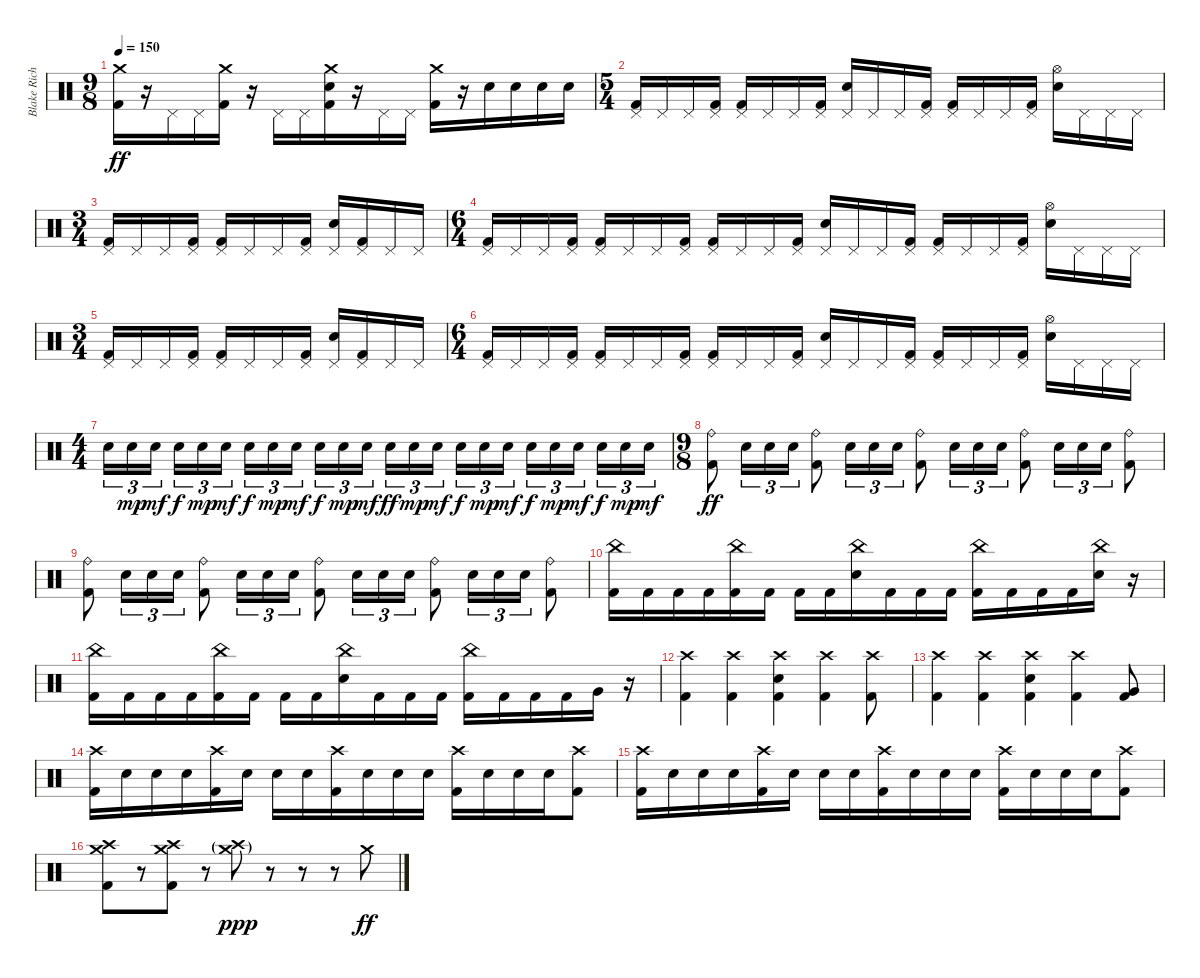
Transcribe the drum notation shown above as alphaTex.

\track ("Blake Richardson" "Blake Rich") {instrument percussion}
\staff {score}
\articulation defaults
\ts (9 8)
\tempo 150
\clef neutral
\ks c
("Crash medium (hit)" "Kick (hit) 2").16{dy ff} r.16 "Pedal Hi-Hat (hit)".16 "Pedal Hi-Hat (hit)".16 ("Crash medium (hit)" "Kick (hit) 2").16 r.16 "Pedal Hi-Hat (hit)".16 "Pedal Hi-Hat (hit)".16 ("Crash medium (hit)" "Electric Snare (hit)" "Kick (hit) 2").16 r.16 "Pedal Hi-Hat (hit)".16 "Pedal Hi-Hat (hit)".16 ("Crash medium (hit)" "Kick (hit) 2").16 r.16 "Electric Snare (hit)".16 "Electric Snare (hit)".16 "Electric Snare (hit)".16 "Electric Snare (hit)".16 |
\ts (5 4)
("Pedal Hi-Hat (hit)" "Kick (hit) 2").16 "Pedal Hi-Hat (hit)".16 "Pedal Hi-Hat (hit)".16 ("Pedal Hi-Hat (hit)" "Kick (hit) 2").16 ("Pedal Hi-Hat (hit)" "Kick (hit) 2").16 "Pedal Hi-Hat (hit)".16 "Pedal Hi-Hat (hit)".16 ("Pedal Hi-Hat (hit)" "Kick (hit) 2").16 ("Pedal Hi-Hat (hit)" "Electric Snare (hit)").16 "Pedal Hi-Hat (hit)".16 "Pedal Hi-Hat (hit)".16 ("Pedal Hi-Hat (hit)" "Kick (hit) 2").16 ("Pedal Hi-Hat (hit)" "Kick (hit) 2").16 "Pedal Hi-Hat (hit)".16 "Pedal Hi-Hat (hit)".16 ("Pedal Hi-Hat (hit)" "Kick (hit) 2").16 ("Hi-Hat (open)" "Electric Snare (hit)").16 "Pedal Hi-Hat (hit)".16 "Pedal Hi-Hat (hit)".16 "Pedal Hi-Hat (hit)".16 |
\ts (3 4)
("Pedal Hi-Hat (hit)" "Kick (hit) 2").16 "Pedal Hi-Hat (hit)".16 "Pedal Hi-Hat (hit)".16 ("Pedal Hi-Hat (hit)" "Kick (hit) 2").16 ("Pedal Hi-Hat (hit)" "Kick (hit) 2").16 "Pedal Hi-Hat (hit)".16 "Pedal Hi-Hat (hit)".16 ("Pedal Hi-Hat (hit)" "Kick (hit) 2").16 ("Pedal Hi-Hat (hit)" "Electric Snare (hit)").16 ("Pedal Hi-Hat (hit)" "Kick (hit) 2").16 "Pedal Hi-Hat (hit)".16 "Pedal Hi-Hat (hit)".16 |
\ts (6 4)
("Pedal Hi-Hat (hit)" "Kick (hit) 2").16 "Pedal Hi-Hat (hit)".16 "Pedal Hi-Hat (hit)".16 ("Pedal Hi-Hat (hit)" "Kick (hit) 2").16 ("Pedal Hi-Hat (hit)" "Kick (hit) 2").16 "Pedal Hi-Hat (hit)".16 "Pedal Hi-Hat (hit)".16 ("Pedal Hi-Hat (hit)" "Kick (hit) 2").16 ("Pedal Hi-Hat (hit)" "Kick (hit) 2").16 "Pedal Hi-Hat (hit)".16 "Pedal Hi-Hat (hit)".16 ("Pedal Hi-Hat (hit)" "Kick (hit) 2").16 ("Pedal Hi-Hat (hit)" "Electric Snare (hit)").16 "Pedal Hi-Hat (hit)".16 "Pedal Hi-Hat (hit)".16 ("Pedal Hi-Hat (hit)" "Kick (hit) 2").16 ("Pedal Hi-Hat (hit)" "Kick (hit) 2").16 "Pedal Hi-Hat (hit)".16 "Pedal Hi-Hat (hit)".16 ("Pedal Hi-Hat (hit)" "Kick (hit) 2").16 ("Hi-Hat (open)" "Electric Snare (hit)").16 "Pedal Hi-Hat (hit)".16 "Pedal Hi-Hat (hit)".16 "Pedal Hi-Hat (hit)".16 |
\ts (3 4)
("Pedal Hi-Hat (hit)" "Kick (hit) 2").16 "Pedal Hi-Hat (hit)".16 "Pedal Hi-Hat (hit)".16 ("Pedal Hi-Hat (hit)" "Kick (hit) 2").16 ("Pedal Hi-Hat (hit)" "Kick (hit) 2").16 "Pedal Hi-Hat (hit)".16 "Pedal Hi-Hat (hit)".16 ("Pedal Hi-Hat (hit)" "Kick (hit) 2").16 ("Pedal Hi-Hat (hit)" "Electric Snare (hit)").16 ("Pedal Hi-Hat (hit)" "Kick (hit) 2").16 "Pedal Hi-Hat (hit)".16 "Pedal Hi-Hat (hit)".16 |
\ts (6 4)
("Pedal Hi-Hat (hit)" "Kick (hit) 2").16 "Pedal Hi-Hat (hit)".16 "Pedal Hi-Hat (hit)".16 ("Pedal Hi-Hat (hit)" "Kick (hit) 2").16 ("Pedal Hi-Hat (hit)" "Kick (hit) 2").16 "Pedal Hi-Hat (hit)".16 "Pedal Hi-Hat (hit)".16 ("Pedal Hi-Hat (hit)" "Kick (hit) 2").16 ("Pedal Hi-Hat (hit)" "Kick (hit) 2").16 "Pedal Hi-Hat (hit)".16 "Pedal Hi-Hat (hit)".16 ("Pedal Hi-Hat (hit)" "Kick (hit) 2").16 ("Pedal Hi-Hat (hit)" "Electric Snare (hit)").16 "Pedal Hi-Hat (hit)".16 "Pedal Hi-Hat (hit)".16 ("Pedal Hi-Hat (hit)" "Kick (hit) 2").16 ("Pedal Hi-Hat (hit)" "Kick (hit) 2").16 "Pedal Hi-Hat (hit)".16 "Pedal Hi-Hat (hit)".16 ("Pedal Hi-Hat (hit)" "Kick (hit) 2").16 ("Hi-Hat (open)" "Electric Snare (hit)").16 "Pedal Hi-Hat (hit)".16 "Pedal Hi-Hat (hit)".16 "Pedal Hi-Hat (hit)".16 |
\ts (4 4)
"Electric Snare (hit)".16{tu (3 2)} "Electric Snare (hit)".16{tu (3 2) dy mp} "Electric Snare (hit)".16{tu (3 2) dy mf beam splitsecondary} "Electric Snare (hit)".16{tu (3 2) dy f} "Electric Snare (hit)".16{tu (3 2) dy mp} "Electric Snare (hit)".16{tu (3 2) dy mf} "Electric Snare (hit)".16{tu (3 2) dy f} "Electric Snare (hit)".16{tu (3 2) dy mp} "Electric Snare (hit)".16{tu (3 2) dy mf beam splitsecondary} "Electric Snare (hit)".16{tu (3 2) dy f} "Electric Snare (hit)".16{tu (3 2) dy mp} "Electric Snare (hit)".16{tu (3 2) dy mf} "Electric Snare (hit)".16{tu (3 2) dy ff} "Electric Snare (hit)".16{tu (3 2) dy mp} "Electric Snare (hit)".16{tu (3 2) dy mf beam splitsecondary} "Electric Snare (hit)".16{tu (3 2) dy f} "Electric Snare (hit)".16{tu (3 2) dy mp} "Electric Snare (hit)".16{tu (3 2) dy mf} "Electric Snare (hit)".16{tu (3 2) dy f} "Electric Snare (hit)".16{tu (3 2) dy mp} "Electric Snare (hit)".16{tu (3 2) dy mf beam splitsecondary} "Electric Snare (hit)".16{tu (3 2) dy f} "Electric Snare (hit)".16{tu (3 2) dy mp} "Electric Snare (hit)".16{tu (3 2) dy mf} |
\ts (9 8)
("Ride (bell)" "Kick (hit) 2").8{dy ff} "Electric Snare (hit)".16{tu (3 2)} "Electric Snare (hit)".16{tu (3 2)} "Electric Snare (hit)".16{tu (3 2)} ("Ride (bell)" "Kick (hit) 2").8 "Electric Snare (hit)".16{tu (3 2)} "Electric Snare (hit)".16{tu (3 2)} "Electric Snare (hit)".16{tu (3 2)} ("Ride (bell)" "Kick (hit) 2").8 "Electric Snare (hit)".16{tu (3 2)} "Electric Snare (hit)".16{tu (3 2)} "Electric Snare (hit)".16{tu (3 2)} ("Ride (bell)" "Kick (hit) 2").8 "Electric Snare (hit)".16{tu (3 2)} "Electric Snare (hit)".16{tu (3 2)} "Electric Snare (hit)".16{tu (3 2)} ("Ride (bell)" "Kick (hit) 2").8 |
("Ride (bell)" "Kick (hit) 2").8 "Electric Snare (hit)".16{tu (3 2)} "Electric Snare (hit)".16{tu (3 2)} "Electric Snare (hit)".16{tu (3 2)} ("Ride (bell)" "Kick (hit) 2").8 "Electric Snare (hit)".16{tu (3 2)} "Electric Snare (hit)".16{tu (3 2)} "Electric Snare (hit)".16{tu (3 2)} ("Ride (bell)" "Kick (hit) 2").8 "Electric Snare (hit)".16{tu (3 2)} "Electric Snare (hit)".16{tu (3 2)} "Electric Snare (hit)".16{tu (3 2)} ("Ride (bell)" "Kick (hit) 2").8 "Electric Snare (hit)".16{tu (3 2)} "Electric Snare (hit)".16{tu (3 2)} "Electric Snare (hit)".16{tu (3 2)} ("Ride (bell)" "Kick (hit) 2").8 |
("China (hit)" "Kick (hit) 2").16 "Kick (hit) 2".16 "Kick (hit) 2".16 "Kick (hit) 2".16 ("China (hit)" "Kick (hit) 2").16 "Kick (hit) 2".16 "Kick (hit) 2".16 "Kick (hit) 2".16 ("China (hit)" "Electric Snare (hit)").16 "Kick (hit) 2".16 "Kick (hit) 2".16 "Kick (hit) 2".16 ("China (hit)" "Kick (hit) 2").16 "Kick (hit) 2".16 "Kick (hit) 2".16 "Kick (hit) 2".16 ("China (hit)" "Electric Snare (hit)").16 r.16 |
("China (hit)" "Kick (hit) 2").16 "Kick (hit) 2".16 "Kick (hit) 2".16 "Kick (hit) 2".16 ("China (hit)" "Kick (hit) 2").16 "Kick (hit) 2".16 "Kick (hit) 2".16 "Kick (hit) 2".16 ("China (hit)" "Electric Snare (hit)").16 "Kick (hit) 2".16 "Kick (hit) 2".16 "Kick (hit) 2".16 ("China (hit)" "Kick (hit) 2").16 "Kick (hit) 2".16 "Kick (hit) 2".16 "Kick (hit) 2".16 "Very Low Tom (hit)".16 r.16 |
("Crash high (hit)" "Kick (hit) 2").4 ("Crash high (hit)" "Kick (hit) 2").4 ("Crash high (hit)" "Electric Snare (hit)" "Kick (hit) 2").4 ("Crash high (hit)" "Kick (hit) 2").4 ("Crash high (hit)" "Kick (hit) 2").8 |
("Crash high (hit)" "Kick (hit) 2").4 ("Crash high (hit)" "Kick (hit) 2").4 ("Crash high (hit)" "Electric Snare (hit)" "Kick (hit) 2").4 ("Crash high (hit)" "Kick (hit) 2").4 ("Very Low Tom (hit)" "Kick (hit) 2").8 |
("Crash high (hit)" "Kick (hit) 2").16 "Electric Snare (hit)".16 "Electric Snare (hit)".16 "Electric Snare (hit)".16 ("Crash high (hit)" "Kick (hit) 2").16 "Electric Snare (hit)".16 "Electric Snare (hit)".16 "Electric Snare (hit)".16 ("Crash high (hit)" "Kick (hit) 2").16 "Electric Snare (hit)".16 "Electric Snare (hit)".16 "Electric Snare (hit)".16 ("Crash high (hit)" "Kick (hit) 2").16 "Electric Snare (hit)".16 "Electric Snare (hit)".16 "Electric Snare (hit)".16 ("Crash high (hit)" "Kick (hit) 2").8 |
("Crash high (hit)" "Kick (hit) 2").16 "Electric Snare (hit)".16 "Electric Snare (hit)".16 "Electric Snare (hit)".16 ("Crash high (hit)" "Kick (hit) 2").16 "Electric Snare (hit)".16 "Electric Snare (hit)".16 "Electric Snare (hit)".16 ("Crash high (hit)" "Kick (hit) 2").16 "Electric Snare (hit)".16 "Electric Snare (hit)".16 "Electric Snare (hit)".16 ("Crash high (hit)" "Kick (hit) 2").16 "Electric Snare (hit)".16 "Electric Snare (hit)".16 "Electric Snare (hit)".16 ("Crash high (hit)" "Kick (hit) 2").8 |
("Crash high (hit)" "Crash medium (hit)" "Kick (hit) 2").8 r.8 ("Crash high (hit)" "Crash medium (hit)" "Kick (hit) 2").8 r.8 ("Crash high (hit)"{g} "Crash medium (hit)"{g}).8{dy ppp} r.8 r.8 r.8 "Crash medium (hit)".8{dy ff}
